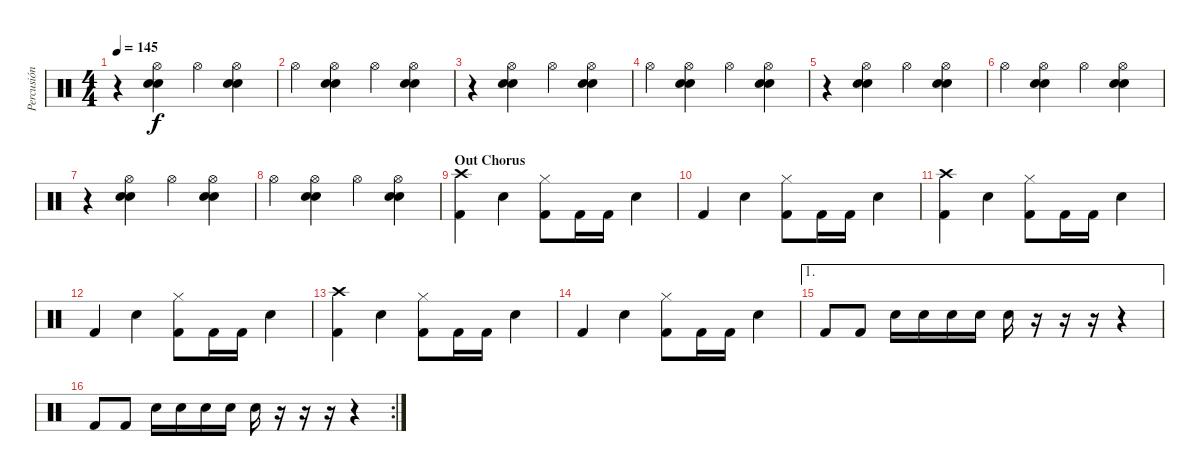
\track ("Percusión" "Percusión") {instrument percussion}
\staff {score}
\articulation defaults
\ts (4 4)
\tempo 145
\clef neutral
\ks c
r.4{dy f} ("Hi-Hat (open)" "Snare (hit) 2" "Snare (hit) 2").4 "Hi-Hat (open)".4 ("Hi-Hat (open)" "Snare (hit) 2" "Snare (hit) 2").4 |
"Hi-Hat (open)".4 ("Hi-Hat (open)" "Snare (hit) 2" "Snare (hit) 2").4 "Hi-Hat (open)".4 ("Hi-Hat (open)" "Snare (hit) 2" "Snare (hit) 2").4 |
r.4 ("Hi-Hat (open)" "Snare (hit) 2" "Snare (hit) 2").4 "Hi-Hat (open)".4 ("Hi-Hat (open)" "Snare (hit) 2" "Snare (hit) 2").4 |
"Hi-Hat (open)".4 ("Hi-Hat (open)" "Snare (hit) 2" "Snare (hit) 2").4 "Hi-Hat (open)".4 ("Hi-Hat (open)" "Snare (hit) 2" "Snare (hit) 2").4 |
r.4 ("Hi-Hat (open)" "Snare (hit) 2" "Snare (hit) 2").4 "Hi-Hat (open)".4 ("Hi-Hat (open)" "Snare (hit) 2" "Snare (hit) 2").4 |
"Hi-Hat (open)".4 ("Hi-Hat (open)" "Snare (hit) 2" "Snare (hit) 2").4 "Hi-Hat (open)".4 ("Hi-Hat (open)" "Snare (hit) 2" "Snare (hit) 2").4 |
r.4 ("Hi-Hat (open)" "Snare (hit) 2" "Snare (hit) 2").4 "Hi-Hat (open)".4 ("Hi-Hat (open)" "Snare (hit) 2" "Snare (hit) 2").4 |
"Hi-Hat (open)".4 ("Hi-Hat (open)" "Snare (hit) 2" "Snare (hit) 2").4 "Hi-Hat (open)".4 ("Hi-Hat (open)" "Snare (hit) 2" "Snare (hit) 2").4 |
\section ("" "Out Chorus")
("Crash high (hit)" "Kick (hit) 2").4 "Snare (hit) 2".4 ("Hi-Hat (closed)" "Kick (hit) 2").8 "Kick (hit) 2".16 "Kick (hit) 2".16 "Snare (hit) 2".4 |
"Kick (hit) 2".4 "Snare (hit) 2".4 ("Hi-Hat (closed)" "Kick (hit) 2").8 "Kick (hit) 2".16 "Kick (hit) 2".16 "Snare (hit) 2".4 |
("Crash high (hit)" "Kick (hit) 2").4 "Snare (hit) 2".4 ("Hi-Hat (closed)" "Kick (hit) 2").8 "Kick (hit) 2".16 "Kick (hit) 2".16 "Snare (hit) 2".4 |
"Kick (hit) 2".4 "Snare (hit) 2".4 ("Hi-Hat (closed)" "Kick (hit) 2").8 "Kick (hit) 2".16 "Kick (hit) 2".16 "Snare (hit) 2".4 |
("Crash high (hit)" "Kick (hit) 2").4 "Snare (hit) 2".4 ("Hi-Hat (closed)" "Kick (hit) 2").8 "Kick (hit) 2".16 "Kick (hit) 2".16 "Snare (hit) 2".4 |
"Kick (hit) 2".4 "Snare (hit) 2".4 ("Hi-Hat (closed)" "Kick (hit) 2").8 "Kick (hit) 2".16 "Kick (hit) 2".16 "Snare (hit) 2".4 |
\ae 1 "Kick (hit) 2".8 "Kick (hit) 2".8 "Snare (hit) 2".16 "Snare (hit) 2".16 "Snare (hit) 2".16 "Snare (hit) 2".16 "Snare (hit) 2".16
r.16 r.16 r.16 r.4 |
\rc 2 "Kick (hit) 2".8 "Kick (hit) 2".8 "Snare (hit) 2".16 "Snare (hit) 2".16 "Snare (hit) 2".16 "Snare (hit) 2".16 "Snare (hit) 2".16
r.16 r.16 r.16 r.4
